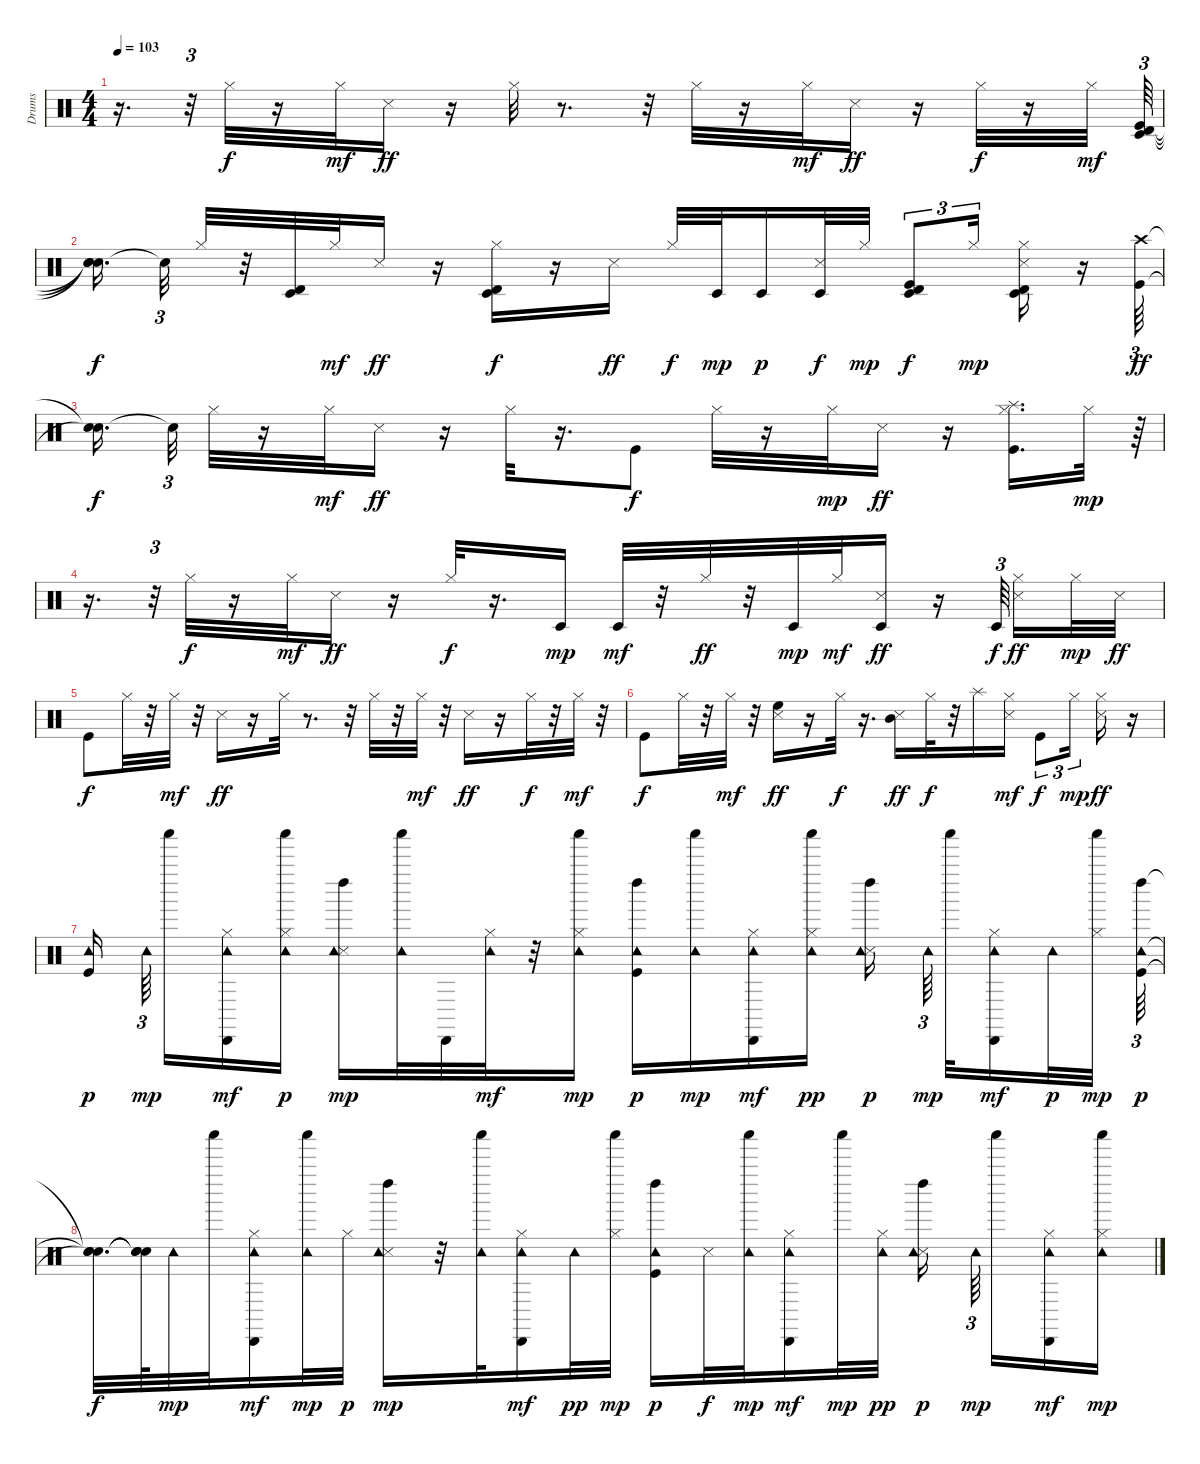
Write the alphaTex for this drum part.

\track ("Drums" "Drums") {instrument percussion}
\staff {score}
\articulation defaults
\ts (4 4)
\tempo 103
\clef neutral
\ks c
r.16{d dy mp} r.32{tu (3 2)} "Hi-Hat (closed)".32{dy f} r.16 "Hi-Hat (closed)".32{dy mf} "Snare (side stick) 3".16{dy ff} r.16 "Hi-Hat (closed)".32 r.8{d} r.32 "Hi-Hat (closed)".32 r.16 "Hi-Hat (closed)".32{dy mf} "Snare (side stick) 3".16{dy ff} r.16 "Hi-Hat (closed)".32{dy f} r.16 "Hi-Hat (closed)".32{dy mf} ("Timbale low (hit)" "Timbale high (hit)" "Kick (hit)").64{tu (3 2)} |
("Snare (hit)"{t} "Snare (hit)"{t} "Snare (hit)"{t}).16{d dy f beam splitsecondary} "Snare (hit)"{t}.32{tu (3 2)} "Hi-Hat (closed)".32 r.32 ("Timbale low (hit)" "Timbale high (hit)").32 "Hi-Hat (closed)".32{dy mf} "Snare (side stick) 3".16{dy ff} r.16 ("Timbale high (hit)" "Timbale low (hit)" "Hi-Hat (closed)").16{dy f} r.16 "Snare (side stick) 3".16{dy ff} "Hi-Hat (closed)".32{dy f} "Timbale low (hit)".32{dy mp} "Timbale low (hit)".16{dy p} ("Timbale low (hit)" "Snare (side stick) 3").32{dy f} "Hi-Hat (closed)".32{dy mp} ("Timbale high (hit)" "Timbale low (hit)" "Kick (hit)").8{tu (3 2) dy f} "Hi-Hat (closed)".16{tu (3 2) dy mp} ("Snare (side stick) 3" "Hi-Hat (closed)" "Timbale high (hit)" "Timbale low (hit)").16 r.16 ("Crash high (hit)" "Kick (hit)").64{tu (3 2) dy ff} |
("Snare (hit)"{t} "Snare (hit)"{t}).16{d dy f beam splitsecondary} "Snare (hit)"{t}.32{tu (3 2)} "Hi-Hat (closed)".32 r.16 "Hi-Hat (closed)".32{dy mf} "Snare (side stick) 3".16{dy ff} r.16 "Hi-Hat (closed)".32 r.16{d} "Kick (hit)".8{dy f} "Hi-Hat (closed)".32 r.16 "Hi-Hat (closed)".32{dy mp} "Snare (side stick) 3".16{dy ff} r.16 ("Splash (hit)" "Kick (hit)" "Hi-Hat (closed)").16{d} "Hi-Hat (closed)".32{dy mp} r.64{tu (3 2)} |
r.16{d} r.32{tu (3 2)} "Hi-Hat (closed)".32{dy f} r.16 "Hi-Hat (closed)".32{dy mf} "Snare (side stick) 3".16{dy ff} r.16 "Hi-Hat (closed)".32{dy f} r.16{d} "Timbale low (hit)".16{dy mp} "Timbale low (hit)".32{dy mf} r.32 "Hi-Hat (closed)".32{dy ff} r.32 "Timbale low (hit)".32{dy mp} "Hi-Hat (closed)".32{dy mf} ("Timbale low (hit)" "Snare (side stick) 3").16{dy ff} r.16 "Timbale low (hit)".64{tu (3 2) dy f beam splitsecondary} ("Snare (side stick) 3" "Hi-Hat (closed)").16{dy ff} "Hi-Hat (closed)".32{dy mp} "Snare (side stick) 3".32{dy ff} |
"Kick (hit)".8{dy f} "Hi-Hat (closed)".32 r.32 "Hi-Hat (closed)".32{dy mf} r.32 "Snare (side stick) 3".16{dy ff} r.16 "Hi-Hat (closed)".32 r.8{d} r.32 "Hi-Hat (closed)".32 r.32 "Hi-Hat (closed)".32{dy mf} r.32 "Snare (side stick) 3".16{dy ff} r.16 "Hi-Hat (closed)".32{dy f} r.32 "Hi-Hat (closed)".32{dy mf} r.32 |
"Kick (hit)".8{dy f} "Hi-Hat (closed)".32 r.32 "Hi-Hat (closed)".32{dy mf} r.32 ("High Floor Tom (hit)" "Snare (side stick) 3").16{dy ff} r.16 "Hi-Hat (closed)".32{dy f} r.16{d} ("Mid Tom (hit)" "Snare (side stick) 3").16{dy ff} "Hi-Hat (closed)".32{dy f} r.32 "Splash (hit)".16 ("Snare (side stick) 3" "Hi-Hat (closed)").16{dy mf} "Kick (hit)".8{tu (3 2) dy f} "Hi-Hat (closed)".16{tu (3 2) dy mp} ("Snare (side stick) 3" "Hi-Hat (closed)").16{dy ff} r.16 |
("Kick (hit)" "Tambourine (hit)").16{dy p beam splitsecondary} "Tambourine (hit)".64{tu (3 2) dy mp beam splitsecondary} "Shaker (hit)".16 ("Cabasa (hit)" "Hi-Hat (closed)" "Tambourine (hit)").16{dy mf} ("Tambourine (hit)" "Shaker (hit)" "Hi-Hat (closed)").16{dy p} ("Left Maraca (hit)" "Snare (side stick) 3" "Tambourine (hit)").16{dy mp} ("Tambourine (hit)" "Shaker (hit)").32 "Cabasa (hit)".32 ("Hi-Hat (closed)" "Tambourine (hit)").32{dy mf} r.32 ("Tambourine (hit)" "Hi-Hat (closed)" "Shaker (hit)").16{dy mp} ("Left Maraca (hit)" "Kick (hit)" "Tambourine (hit)").16{dy p} ("Tambourine (hit)" "Shaker (hit)").16{dy mp} ("Cabasa (hit)" "Hi-Hat (closed)" "Tambourine (hit)").16{dy mf} ("Shaker (hit)" "Hi-Hat (closed)" "Tambourine (hit)").16{dy pp} ("Left Maraca (hit)" "Snare (side stick) 3" "Tambourine (hit)").16{dy p beam splitsecondary} "Tambourine (hit)".64{tu (3 2) dy mp beam splitsecondary} "Shaker (hit)".32 ("Cabasa (hit)" "Hi-Hat (closed)" "Tambourine (hit)").16{dy mf} "Tambourine (hit)".32{dy p} ("Hi-Hat (closed)" "Shaker (hit)").32{dy mp beam splitsecondary} ("Left Maraca (hit)" "Kick (hit)" "Tambourine (hit)").64{tu (3 2) dy p} |
("Snare (hit)"{t} "Snare (hit)"{t} "Snare (hit)"{t}).32{d dy f} ("Snare (hit)"{t} "Snare (hit)"{t} "Snare (hit)"{t}).64 "Tambourine (hit)".32{dy mp} "Shaker (hit)".32 ("Cabasa (hit)" "Hi-Hat (closed)" "Tambourine (hit)").16{dy mf} ("Tambourine (hit)" "Shaker (hit)").32{dy mp} "Hi-Hat (closed)".32{dy p} ("Left Maraca (hit)" "Snare (side stick) 3" "Tambourine (hit)").16{dy mp} r.32 ("Tambourine (hit)" "Shaker (hit)").32 ("Cabasa (hit)" "Hi-Hat (closed)" "Tambourine (hit)").16{dy mf} "Tambourine (hit)".32{dy pp} ("Hi-Hat (closed)" "Shaker (hit)").32{dy mp} ("Left Maraca (hit)" "Kick (hit)" "Tambourine (hit)").16{dy p} "Snare (side stick) 3".32{dy f} ("Tambourine (hit)" "Shaker (hit)").32{dy mp} ("Cabasa (hit)" "Hi-Hat (closed)" "Tambourine (hit)").16{dy mf} "Shaker (hit)".32{dy mp} ("Hi-Hat (closed)" "Tambourine (hit)").32{dy pp} ("Left Maraca (hit)" "Snare (side stick) 3" "Tambourine (hit)").16{dy p beam splitsecondary} "Tambourine (hit)".64{tu (3 2) dy mp beam splitsecondary} "Shaker (hit)".16 ("Cabasa (hit)" "Hi-Hat (closed)" "Tambourine (hit)").16{dy mf} ("Tambourine (hit)" "Hi-Hat (closed)" "Shaker (hit)").16{dy mp}
